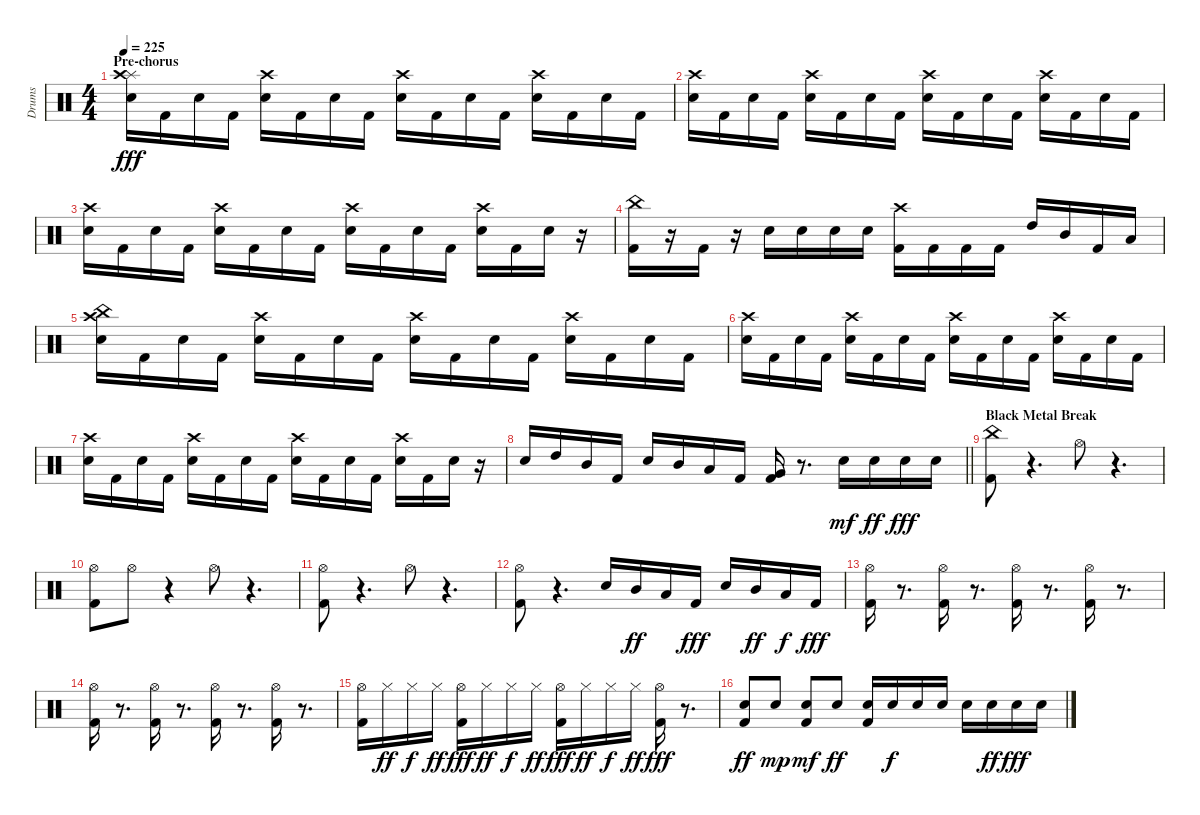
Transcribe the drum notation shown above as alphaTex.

\track ("Drums" "Drums") {instrument percussion}
\staff {score}
\articulation defaults
\ts (4 4)
\section ("" "Pre-chorus")
\tempo 225
\clef neutral
\ks c
("Snare (hit) 2" "Splash (hit)" "Crash high (hit)").16{dy fff} "Kick (hit) 2".16 "Snare (hit) 2".16 "Kick (hit) 2".16 ("Snare (hit) 2" "Crash high (hit)").16 "Kick (hit) 2".16 "Snare (hit) 2".16 "Kick (hit) 2".16 ("Snare (hit) 2" "Crash high (hit)").16 "Kick (hit) 2".16 "Snare (hit) 2".16 "Kick (hit) 2".16 ("Snare (hit) 2" "Crash high (hit)").16 "Kick (hit) 2".16 "Snare (hit) 2".16 "Kick (hit) 2".16 |
("Snare (hit) 2" "Crash high (hit)").16 "Kick (hit) 2".16 "Snare (hit) 2".16 "Kick (hit) 2".16 ("Snare (hit) 2" "Crash high (hit)").16 "Kick (hit) 2".16 "Snare (hit) 2".16 "Kick (hit) 2".16 ("Snare (hit) 2" "Crash high (hit)").16 "Kick (hit) 2".16 "Snare (hit) 2".16 "Kick (hit) 2".16 ("Snare (hit) 2" "Crash high (hit)").16 "Kick (hit) 2".16 "Snare (hit) 2".16 "Kick (hit) 2".16 |
("Snare (hit) 2" "Crash high (hit)").16 "Kick (hit) 2".16 "Snare (hit) 2".16 "Kick (hit) 2".16 ("Snare (hit) 2" "Crash high (hit)").16 "Kick (hit) 2".16 "Snare (hit) 2".16 "Kick (hit) 2".16 ("Snare (hit) 2" "Crash high (hit)").16 "Kick (hit) 2".16 "Snare (hit) 2".16 "Kick (hit) 2".16 ("Snare (hit) 2" "Crash high (hit)").16 "Kick (hit) 2".16 "Snare (hit) 2".16 r.16 |
("Kick (hit) 2" "China (hit)").16 r.16 "Kick (hit) 2".16 r.16 "Snare (hit) 2".16 "Snare (hit) 2".16 "Snare (hit) 2".16 "Snare (hit) 2".16 ("Kick (hit) 2" "Crash high (hit)").16 "Kick (hit) 2".16 "Kick (hit) 2".16 "Kick (hit) 2".16 "High Tom (hit)".16 "Mid Tom (hit)".16 "Kick (hit) 2".16 "Low Tom (hit)".16 |
("Snare (hit) 2" "Crash high (hit)" "China (hit)").16 "Kick (hit) 2".16 "Snare (hit) 2".16 "Kick (hit) 2".16 ("Snare (hit) 2" "Crash high (hit)").16 "Kick (hit) 2".16 "Snare (hit) 2".16 "Kick (hit) 2".16 ("Snare (hit) 2" "Crash high (hit)").16 "Kick (hit) 2".16 "Snare (hit) 2".16 "Kick (hit) 2".16 ("Snare (hit) 2" "Crash high (hit)").16 "Kick (hit) 2".16 "Snare (hit) 2".16 "Kick (hit) 2".16 |
("Snare (hit) 2" "Crash high (hit)").16 "Kick (hit) 2".16 "Snare (hit) 2".16 "Kick (hit) 2".16 ("Snare (hit) 2" "Crash high (hit)").16 "Kick (hit) 2".16 "Snare (hit) 2".16 "Kick (hit) 2".16 ("Snare (hit) 2" "Crash high (hit)").16 "Kick (hit) 2".16 "Snare (hit) 2".16 "Kick (hit) 2".16 ("Snare (hit) 2" "Crash high (hit)").16 "Kick (hit) 2".16 "Snare (hit) 2".16 "Kick (hit) 2".16 |
("Snare (hit) 2" "Crash high (hit)").16 "Kick (hit) 2".16 "Snare (hit) 2".16 "Kick (hit) 2".16 ("Snare (hit) 2" "Crash high (hit)").16 "Kick (hit) 2".16 "Snare (hit) 2".16 "Kick (hit) 2".16 ("Snare (hit) 2" "Crash high (hit)").16 "Kick (hit) 2".16 "Snare (hit) 2".16 "Kick (hit) 2".16 ("Snare (hit) 2" "Crash high (hit)").16 "Kick (hit) 2".16 "Snare (hit) 2".16 r.16 |
\barLineRight lightlight "Snare (hit) 2".16 "High Tom (hit)".16 "Mid Tom (hit)".16 "Kick (hit) 2".16 "Snare (hit) 2".16 "Mid Tom (hit)".16 "Low Tom (hit)".16 "Kick (hit) 2".16
("Kick (hit) 2" "Very Low Tom (hit)").16 r.8{d} "Snare (hit) 2".16{dy mf} "Snare (hit) 2".16{dy ff} "Snare (hit) 2".16{dy fff} "Snare (hit) 2".16 |
\section ("" "Black Metal Break")
("Kick (hit) 2" "China (hit)").8 r.4{d} "Hi-Hat (open)".8 r.4{d} |
("Kick (hit) 2" "Hi-Hat (open)").8 "Hi-Hat (open)".8 r.4 "Hi-Hat (open)".8 r.4{d} |
("Kick (hit) 2" "Hi-Hat (open)").8 r.4{d} "Hi-Hat (open)".8 r.4{d} |
("Kick (hit) 2" "Hi-Hat (open)").8 r.4{d} "Snare (hit) 2".16 "Mid Tom (hit)".16{dy ff} "Low Tom (hit)".16 "Kick (hit) 2".16{dy fff} "Snare (hit) 2".16 "Mid Tom (hit)".16{dy ff} "Low Tom (hit)".16{dy f} "Kick (hit) 2".16{dy fff} |
("Kick (hit) 2" "Hi-Hat (open)").16 r.8{d} ("Kick (hit) 2" "Hi-Hat (open)").16 r.8{d} ("Kick (hit) 2" "Hi-Hat (open)").16 r.8{d} ("Kick (hit) 2" "Hi-Hat (open)").16 r.8{d} |
("Kick (hit) 2" "Hi-Hat (open)").16 r.8{d} ("Kick (hit) 2" "Hi-Hat (open)").16 r.8{d} ("Kick (hit) 2" "Hi-Hat (open)").16 r.8{d} ("Kick (hit) 2" "Hi-Hat (open)").16 r.8{d} |
("Kick (hit) 2" "Hi-Hat (open)").16 "Hi-Hat (closed)".16{dy ff} "Hi-Hat (closed)".16{dy f} "Hi-Hat (closed)".16{dy ff} ("Kick (hit) 2" "Hi-Hat (open)").16{dy fff} "Hi-Hat (closed)".16{dy ff} "Hi-Hat (closed)".16{dy f} "Hi-Hat (closed)".16{dy ff} ("Kick (hit) 2" "Hi-Hat (open)").16{dy fff} "Hi-Hat (closed)".16{dy ff} "Hi-Hat (closed)".16{dy f} "Hi-Hat (closed)".16{dy ff} ("Kick (hit) 2" "Hi-Hat (open)").16{dy fff} r.8{d} |
("Kick (hit) 2" "Snare (hit) 2").8{dy ff} "Snare (hit) 2".8{dy mp} ("Kick (hit) 2" "Snare (hit) 2").8{dy mf} "Snare (hit) 2".8{dy ff} ("Kick (hit) 2" "Snare (hit) 2").16 "Snare (hit) 2".16{dy f} "Snare (hit) 2".16 "Snare (hit) 2".16 "Snare (hit) 2".16 "Snare (hit) 2".16{dy ff} "Snare (hit) 2".16{dy fff} "Snare (hit) 2".16
